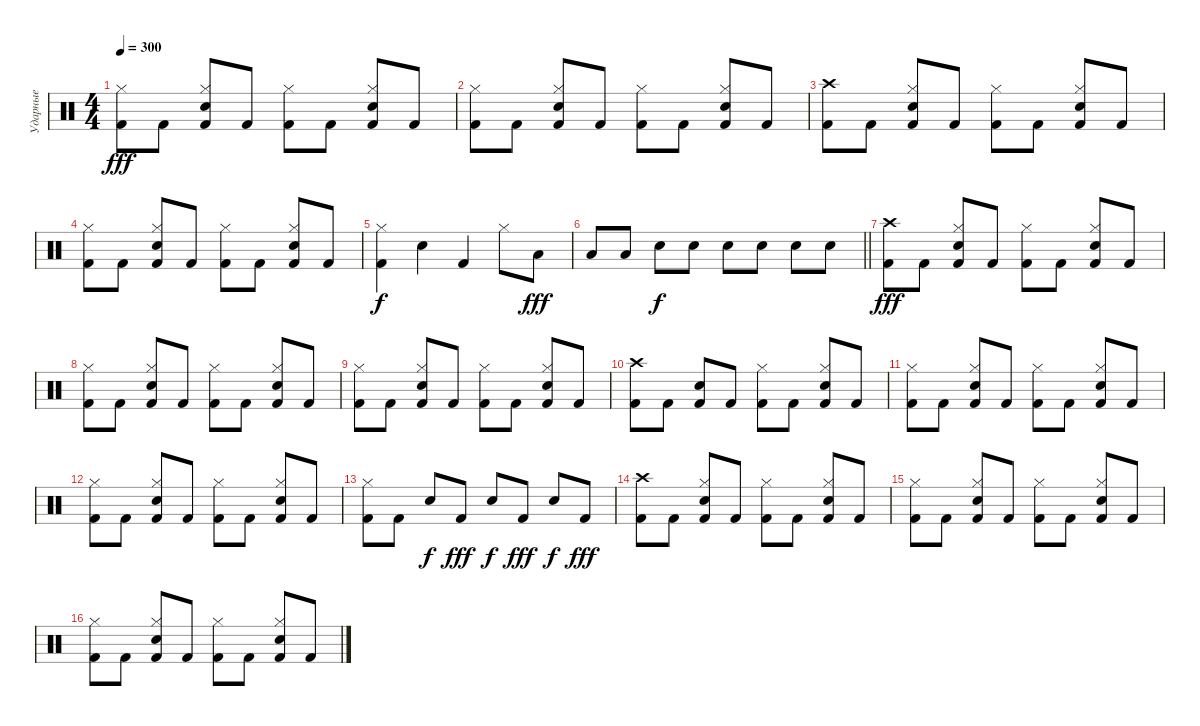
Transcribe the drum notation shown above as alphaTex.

\track ("Ударные" "Ударные") {instrument percussion}
\staff {score}
\articulation defaults
\ts (4 4)
\tempo 300
\clef neutral
\ks c
("Kick (hit) 2" "Hi-Hat (closed)").8{dy fff} "Kick (hit) 2".8 ("Kick (hit) 2" "Snare (hit) 2" "Hi-Hat (closed)").8 "Kick (hit) 2".8 ("Kick (hit) 2" "Hi-Hat (closed)").8 "Kick (hit) 2".8 ("Kick (hit) 2" "Snare (hit) 2" "Hi-Hat (closed)").8 "Kick (hit) 2".8 |
("Kick (hit) 2" "Hi-Hat (closed)").8 "Kick (hit) 2".8 ("Kick (hit) 2" "Snare (hit) 2" "Hi-Hat (closed)").8 "Kick (hit) 2".8 ("Kick (hit) 2" "Hi-Hat (closed)").8 "Kick (hit) 2".8 ("Kick (hit) 2" "Snare (hit) 2" "Hi-Hat (closed)").8 "Kick (hit) 2".8 |
("Kick (hit) 2" "Crash high (hit)").8 "Kick (hit) 2".8 ("Kick (hit) 2" "Snare (hit) 2" "Hi-Hat (closed)").8 "Kick (hit) 2".8 ("Kick (hit) 2" "Hi-Hat (closed)").8 "Kick (hit) 2".8 ("Kick (hit) 2" "Snare (hit) 2" "Hi-Hat (closed)").8 "Kick (hit) 2".8 |
("Kick (hit) 2" "Hi-Hat (closed)").8 "Kick (hit) 2".8 ("Kick (hit) 2" "Snare (hit) 2" "Hi-Hat (closed)").8 "Kick (hit) 2".8 ("Kick (hit) 2" "Hi-Hat (closed)").8 "Kick (hit) 2".8 ("Kick (hit) 2" "Snare (hit) 2" "Hi-Hat (closed)").8 "Kick (hit) 2".8 |
("Kick (hit) 2" "Hi-Hat (closed)").4{dy f} "Snare (hit) 2".4 "Kick (hit) 2".4 "Hi-Hat (closed)".8 "Low Tom (hit)".8{dy fff} |
\barLineRight lightlight "Low Tom (hit)".8 "Low Tom (hit)".8 "Snare (hit) 2".8{dy f} "Snare (hit) 2".8 "Snare (hit) 2".8 "Snare (hit) 2".8 "Snare (hit) 2".8 "Snare (hit) 2".8
|
("Kick (hit) 2" "Crash high (hit)").8{dy fff} "Kick (hit) 2".8 ("Kick (hit) 2" "Snare (hit) 2" "Hi-Hat (closed)").8 "Kick (hit) 2".8 ("Kick (hit) 2" "Hi-Hat (closed)").8 "Kick (hit) 2".8 ("Kick (hit) 2" "Snare (hit) 2" "Hi-Hat (closed)").8 "Kick (hit) 2".8 |
("Kick (hit) 2" "Hi-Hat (closed)").8 "Kick (hit) 2".8 ("Kick (hit) 2" "Snare (hit) 2" "Hi-Hat (closed)").8 "Kick (hit) 2".8 ("Kick (hit) 2" "Hi-Hat (closed)").8 "Kick (hit) 2".8 ("Kick (hit) 2" "Snare (hit) 2" "Hi-Hat (closed)").8 "Kick (hit) 2".8 |
("Kick (hit) 2" "Hi-Hat (closed)").8 "Kick (hit) 2".8 ("Kick (hit) 2" "Snare (hit) 2" "Hi-Hat (closed)").8 "Kick (hit) 2".8 ("Kick (hit) 2" "Hi-Hat (closed)").8 "Kick (hit) 2".8 ("Kick (hit) 2" "Snare (hit) 2" "Hi-Hat (closed)").8 "Kick (hit) 2".8 |
("Kick (hit) 2" "Crash high (hit)").8 "Kick (hit) 2".8 ("Kick (hit) 2" "Snare (hit) 2").8 "Kick (hit) 2".8 ("Kick (hit) 2" "Hi-Hat (closed)").8 "Kick (hit) 2".8 ("Kick (hit) 2" "Snare (hit) 2" "Hi-Hat (closed)").8 "Kick (hit) 2".8 |
("Kick (hit) 2" "Hi-Hat (closed)").8 "Kick (hit) 2".8 ("Kick (hit) 2" "Snare (hit) 2" "Hi-Hat (closed)").8 "Kick (hit) 2".8 ("Kick (hit) 2" "Hi-Hat (closed)").8 "Kick (hit) 2".8 ("Kick (hit) 2" "Snare (hit) 2" "Hi-Hat (closed)").8 "Kick (hit) 2".8 |
("Kick (hit) 2" "Hi-Hat (closed)").8 "Kick (hit) 2".8 ("Kick (hit) 2" "Snare (hit) 2" "Hi-Hat (closed)").8 "Kick (hit) 2".8 ("Kick (hit) 2" "Hi-Hat (closed)").8 "Kick (hit) 2".8 ("Kick (hit) 2" "Snare (hit) 2" "Hi-Hat (closed)").8 "Kick (hit) 2".8 |
("Kick (hit) 2" "Hi-Hat (closed)").8 "Kick (hit) 2".8 "Snare (hit) 2".8{dy f} "Kick (hit) 2".8{dy fff} "Snare (hit) 2".8{dy f} "Kick (hit) 2".8{dy fff} "Snare (hit) 2".8{dy f} "Kick (hit) 2".8{dy fff} |
("Kick (hit) 2" "Crash high (hit)").8 "Kick (hit) 2".8 ("Kick (hit) 2" "Snare (hit) 2" "Hi-Hat (closed)").8 "Kick (hit) 2".8 ("Kick (hit) 2" "Hi-Hat (closed)").8 "Kick (hit) 2".8 ("Kick (hit) 2" "Snare (hit) 2" "Hi-Hat (closed)").8 "Kick (hit) 2".8 |
("Kick (hit) 2" "Hi-Hat (closed)").8 "Kick (hit) 2".8 ("Kick (hit) 2" "Snare (hit) 2" "Hi-Hat (closed)").8 "Kick (hit) 2".8 ("Kick (hit) 2" "Hi-Hat (closed)").8 "Kick (hit) 2".8 ("Kick (hit) 2" "Snare (hit) 2" "Hi-Hat (closed)").8 "Kick (hit) 2".8 |
("Kick (hit) 2" "Hi-Hat (closed)").8 "Kick (hit) 2".8 ("Kick (hit) 2" "Snare (hit) 2" "Hi-Hat (closed)").8 "Kick (hit) 2".8 ("Kick (hit) 2" "Hi-Hat (closed)").8 "Kick (hit) 2".8 ("Kick (hit) 2" "Snare (hit) 2" "Hi-Hat (closed)").8 "Kick (hit) 2".8
